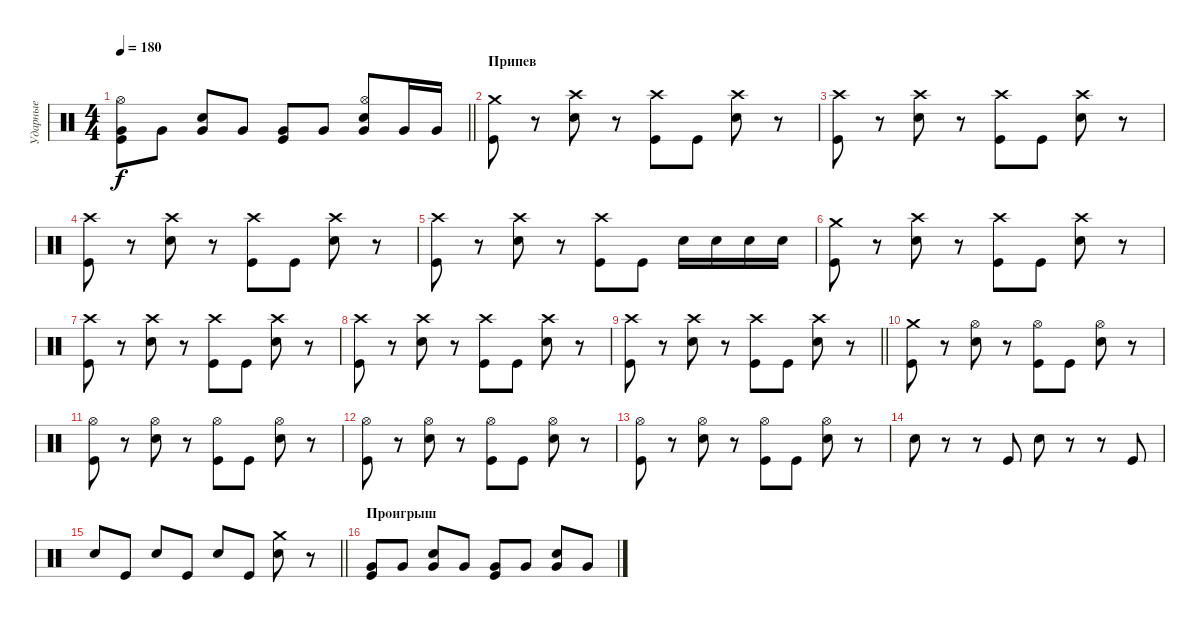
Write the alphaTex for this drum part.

\track ("Ударные" "Ударные") {instrument percussion}
\staff {score}
\articulation defaults
\ts (4 4)
\tempo 180
\clef neutral
\barLineRight lightlight
\ks c
("Very Low Tom (hit)" "Kick (hit)" "Hi-Hat (open)").8{dy f} "Very Low Tom (hit)".8 ("Very Low Tom (hit)" "Electric Snare (hit)").8 "Very Low Tom (hit)".8 ("Very Low Tom (hit)" "Kick (hit)").8 "Very Low Tom (hit)".8 ("Very Low Tom (hit)" "Electric Snare (hit)" "Hi-Hat (open)").8 "Very Low Tom (hit)".16 "Very Low Tom (hit)".16 |
\section ("" "Припев")
("Crash medium (hit)" "Kick (hit)").8 r.8 ("Crash high (hit)" "Electric Snare (hit)").8 r.8 ("Crash high (hit)" "Kick (hit)").8 "Kick (hit)".8 ("Crash high (hit)" "Electric Snare (hit)").8 r.8 |
("Crash high (hit)" "Kick (hit)").8 r.8 ("Crash high (hit)" "Electric Snare (hit)").8 r.8 ("Crash high (hit)" "Kick (hit)").8 "Kick (hit)".8 ("Crash high (hit)" "Electric Snare (hit)").8 r.8 |
("Crash high (hit)" "Kick (hit)").8 r.8 ("Crash high (hit)" "Electric Snare (hit)").8 r.8 ("Crash high (hit)" "Kick (hit)").8 "Kick (hit)".8 ("Crash high (hit)" "Electric Snare (hit)").8 r.8 |
("Crash high (hit)" "Kick (hit)").8 r.8 ("Crash high (hit)" "Electric Snare (hit)").8 r.8 ("Crash high (hit)" "Kick (hit)").8 "Kick (hit)".8 "Electric Snare (hit)".16 "Electric Snare (hit)".16 "Electric Snare (hit)".16 "Electric Snare (hit)".16 |
("Crash medium (hit)" "Kick (hit)").8 r.8 ("Crash high (hit)" "Electric Snare (hit)").8 r.8 ("Crash high (hit)" "Kick (hit)").8 "Kick (hit)".8 ("Crash high (hit)" "Electric Snare (hit)").8 r.8 |
("Crash high (hit)" "Kick (hit)").8 r.8 ("Crash high (hit)" "Electric Snare (hit)").8 r.8 ("Crash high (hit)" "Kick (hit)").8 "Kick (hit)".8 ("Crash high (hit)" "Electric Snare (hit)").8 r.8 |
("Crash high (hit)" "Kick (hit)").8 r.8 ("Crash high (hit)" "Electric Snare (hit)").8 r.8 ("Crash high (hit)" "Kick (hit)").8 "Kick (hit)".8 ("Crash high (hit)" "Electric Snare (hit)").8 r.8 |
\barLineRight lightlight
("Crash high (hit)" "Kick (hit)").8 r.8 ("Crash high (hit)" "Electric Snare (hit)").8 r.8 ("Crash high (hit)" "Kick (hit)").8 "Kick (hit)".8 ("Crash high (hit)" "Electric Snare (hit)").8 r.8 |
\section ("" " ")
("Crash medium (hit)" "Kick (hit)").8 r.8 ("Hi-Hat (open)" "Electric Snare (hit)").8 r.8 ("Hi-Hat (open)" "Kick (hit)").8 "Kick (hit)".8 ("Hi-Hat (open)" "Electric Snare (hit)").8 r.8 |
("Hi-Hat (open)" "Kick (hit)").8 r.8 ("Hi-Hat (open)" "Electric Snare (hit)").8 r.8 ("Hi-Hat (open)" "Kick (hit)").8 "Kick (hit)".8 ("Hi-Hat (open)" "Electric Snare (hit)").8 r.8 |
("Hi-Hat (open)" "Kick (hit)").8 r.8 ("Hi-Hat (open)" "Electric Snare (hit)").8 r.8 ("Hi-Hat (open)" "Kick (hit)").8 "Kick (hit)".8 ("Hi-Hat (open)" "Electric Snare (hit)").8 r.8 |
("Hi-Hat (open)" "Kick (hit)").8 r.8 ("Hi-Hat (open)" "Electric Snare (hit)").8 r.8 ("Hi-Hat (open)" "Kick (hit)").8 "Kick (hit)".8 ("Hi-Hat (open)" "Electric Snare (hit)").8 r.8 |
"Electric Snare (hit)".8 r.8 r.8 "Kick (hit)".8 "Electric Snare (hit)".8 r.8 r.8 "Kick (hit)".8 |
\barLineRight lightlight "Electric Snare (hit)".8 "Kick (hit)".8 "Electric Snare (hit)".8 "Kick (hit)".8 "Electric Snare (hit)".8 "Kick (hit)".8
("Crash medium (hit)" "Electric Snare (hit)").8 r.8 |
\section ("" "Проигрыш")
("Very Low Tom (hit)" "Kick (hit)").8 "Very Low Tom (hit)".8 ("Very Low Tom (hit)" "Electric Snare (hit)").8 "Very Low Tom (hit)".8 ("Very Low Tom (hit)" "Kick (hit)").8 "Very Low Tom (hit)".8 ("Very Low Tom (hit)" "Electric Snare (hit)").8 "Very Low Tom (hit)".8
